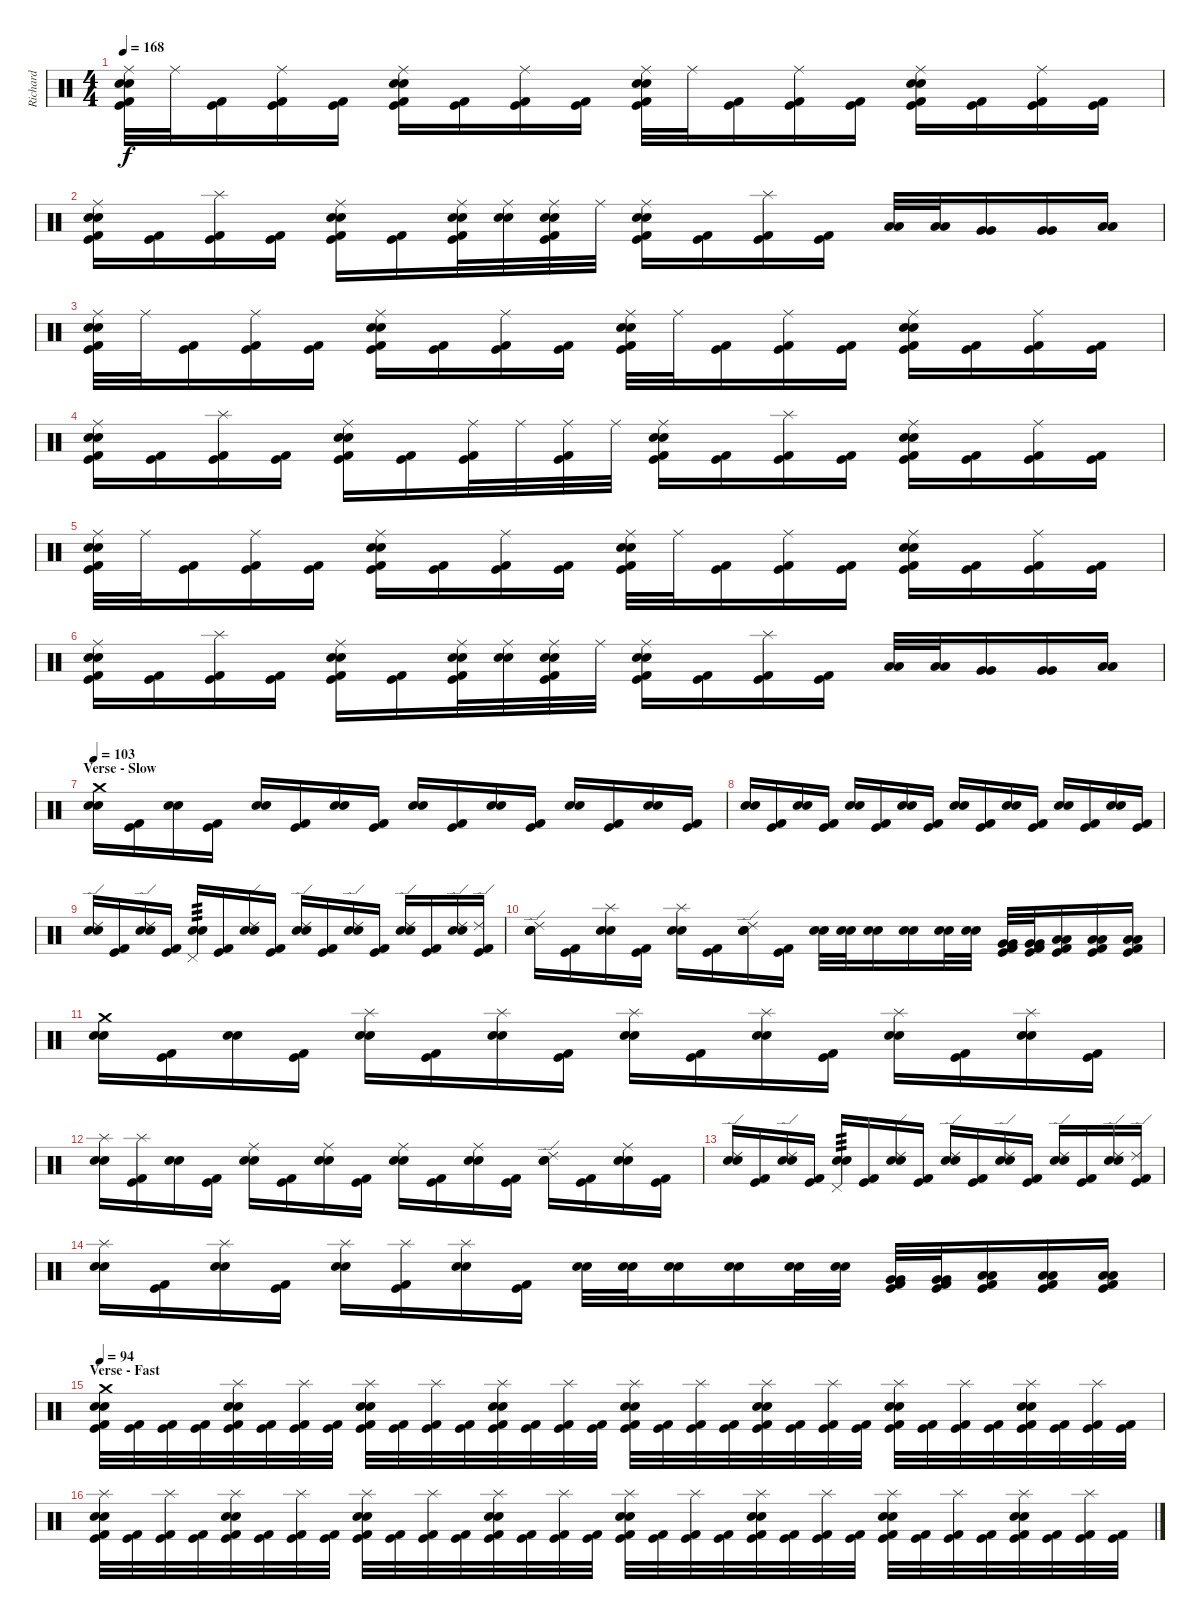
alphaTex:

\track ("Richard" "Richard") {instrument percussion}
\staff {score}
\articulation defaults
\ts (4 4)
\tempo 168
\clef neutral
\ks c
("Ride (middle)" "Snare (hit) 2" "Electric Snare (hit)" "Kick (hit)" "Kick (hit) 2").32{dy f} "Ride (middle)".32 ("Kick (hit)" "Kick (hit) 2").16 ("Ride (middle)" "Kick (hit)" "Kick (hit) 2").16 ("Kick (hit)" "Kick (hit) 2").16 ("Ride (middle)" "Snare (hit) 2" "Electric Snare (hit)" "Kick (hit)" "Kick (hit) 2").16 ("Kick (hit)" "Kick (hit) 2").16 ("Ride (middle)" "Kick (hit)" "Kick (hit) 2").16 ("Kick (hit)" "Kick (hit) 2").16 ("Ride (middle)" "Snare (hit) 2" "Electric Snare (hit)" "Kick (hit)" "Kick (hit) 2").32 "Ride (middle)".32 ("Kick (hit)" "Kick (hit) 2").16 ("Ride (middle)" "Kick (hit)" "Kick (hit) 2").16 ("Kick (hit)" "Kick (hit) 2").16 ("Ride (middle)" "Snare (hit) 2" "Electric Snare (hit)" "Kick (hit)" "Kick (hit) 2").16 ("Kick (hit)" "Kick (hit) 2").16 ("Ride (middle)" "Kick (hit)" "Kick (hit) 2").16 ("Kick (hit)" "Kick (hit) 2").16 |
("Ride (middle)" "Snare (hit) 2" "Electric Snare (hit)" "Kick (hit)" "Kick (hit) 2").16 ("Kick (hit)" "Kick (hit) 2").16 ("Splash (hit)" "Kick (hit)" "Kick (hit) 2").16 ("Kick (hit)" "Kick (hit) 2").16 ("Ride (middle)" "Snare (hit) 2" "Electric Snare (hit)" "Kick (hit)" "Kick (hit) 2").16 ("Kick (hit)" "Kick (hit) 2").16 ("Ride (middle)" "Snare (hit) 2" "Electric Snare (hit)" "Kick (hit)" "Kick (hit) 2").32 ("Ride (middle)" "Snare (hit) 2" "Electric Snare (hit)").32 ("Ride (middle)" "Snare (hit) 2" "Electric Snare (hit)" "Kick (hit)" "Kick (hit) 2").32 "Ride (middle)".32 ("Ride (middle)" "Snare (hit) 2" "Electric Snare (hit)" "Kick (hit)" "Kick (hit) 2").16 ("Kick (hit)" "Kick (hit) 2").16 ("Splash (hit)" "Kick (hit)" "Kick (hit) 2").16 ("Kick (hit)" "Kick (hit) 2").16 ("Low Tom (hit)" "Low Tom (hit)").32 ("Low Tom (hit)" "Low Tom (hit)").32 ("Very Low Tom (hit)" "Very Low Tom (hit)").16 ("Very Low Tom (hit)" "Very Low Tom (hit)").16 ("Low Floor Tom (hit)" "Low Floor Tom (hit)").16 |
("Ride (middle)" "Snare (hit) 2" "Electric Snare (hit)" "Kick (hit)" "Kick (hit) 2").32 "Ride (middle)".32 ("Kick (hit)" "Kick (hit) 2").16 ("Ride (middle)" "Kick (hit)" "Kick (hit) 2").16 ("Kick (hit)" "Kick (hit) 2").16 ("Ride (middle)" "Snare (hit) 2" "Electric Snare (hit)" "Kick (hit)" "Kick (hit) 2").16 ("Kick (hit)" "Kick (hit) 2").16 ("Ride (middle)" "Kick (hit)" "Kick (hit) 2").16 ("Kick (hit)" "Kick (hit) 2").16 ("Ride (middle)" "Snare (hit) 2" "Electric Snare (hit)" "Kick (hit)" "Kick (hit) 2").32 "Ride (middle)".32 ("Kick (hit)" "Kick (hit) 2").16 ("Ride (middle)" "Kick (hit)" "Kick (hit) 2").16 ("Kick (hit)" "Kick (hit) 2").16 ("Ride (middle)" "Snare (hit) 2" "Electric Snare (hit)" "Kick (hit)" "Kick (hit) 2").16 ("Kick (hit)" "Kick (hit) 2").16 ("Ride (middle)" "Kick (hit)" "Kick (hit) 2").16 ("Kick (hit)" "Kick (hit) 2").16 |
("Ride (middle)" "Snare (hit) 2" "Electric Snare (hit)" "Kick (hit)" "Kick (hit) 2").16 ("Kick (hit)" "Kick (hit) 2").16 ("Splash (hit)" "Kick (hit)" "Kick (hit) 2").16 ("Kick (hit)" "Kick (hit) 2").16 ("Ride (middle)" "Snare (hit) 2" "Electric Snare (hit)" "Kick (hit)" "Kick (hit) 2").16 ("Kick (hit)" "Kick (hit) 2").16 ("Ride (middle)" "Kick (hit)" "Kick (hit) 2").32 "Ride (middle)".32 ("Ride (middle)" "Kick (hit)" "Kick (hit) 2").32 "Ride (middle)".32 ("Ride (middle)" "Snare (hit) 2" "Electric Snare (hit)" "Kick (hit)" "Kick (hit) 2").16 ("Kick (hit)" "Kick (hit) 2").16 ("Splash (hit)" "Kick (hit)" "Kick (hit) 2").16 ("Kick (hit)" "Kick (hit) 2").16 ("Ride (middle)" "Snare (hit) 2" "Electric Snare (hit)" "Kick (hit)" "Kick (hit) 2").16 ("Kick (hit)" "Kick (hit) 2").16 ("Ride (middle)" "Kick (hit)" "Kick (hit) 2").16 ("Kick (hit)" "Kick (hit) 2").16 |
("Ride (middle)" "Snare (hit) 2" "Electric Snare (hit)" "Kick (hit)" "Kick (hit) 2").32 "Ride (middle)".32 ("Kick (hit)" "Kick (hit) 2").16 ("Ride (middle)" "Kick (hit)" "Kick (hit) 2").16 ("Kick (hit)" "Kick (hit) 2").16 ("Ride (middle)" "Snare (hit) 2" "Electric Snare (hit)" "Kick (hit)" "Kick (hit) 2").16 ("Kick (hit)" "Kick (hit) 2").16 ("Ride (middle)" "Kick (hit)" "Kick (hit) 2").16 ("Kick (hit)" "Kick (hit) 2").16 ("Ride (middle)" "Snare (hit) 2" "Electric Snare (hit)" "Kick (hit)" "Kick (hit) 2").32 "Ride (middle)".32 ("Kick (hit)" "Kick (hit) 2").16 ("Ride (middle)" "Kick (hit)" "Kick (hit) 2").16 ("Kick (hit)" "Kick (hit) 2").16 ("Ride (middle)" "Snare (hit) 2" "Electric Snare (hit)" "Kick (hit)" "Kick (hit) 2").16 ("Kick (hit)" "Kick (hit) 2").16 ("Ride (middle)" "Kick (hit)" "Kick (hit) 2").16 ("Kick (hit)" "Kick (hit) 2").16 |
("Ride (middle)" "Snare (hit) 2" "Electric Snare (hit)" "Kick (hit)" "Kick (hit) 2").16 ("Kick (hit)" "Kick (hit) 2").16 ("Splash (hit)" "Kick (hit)" "Kick (hit) 2").16 ("Kick (hit)" "Kick (hit) 2").16 ("Ride (middle)" "Snare (hit) 2" "Electric Snare (hit)" "Kick (hit)" "Kick (hit) 2").16 ("Kick (hit)" "Kick (hit) 2").16 ("Ride (middle)" "Snare (hit) 2" "Electric Snare (hit)" "Kick (hit)" "Kick (hit) 2").32 ("Ride (middle)" "Snare (hit) 2" "Electric Snare (hit)").32 ("Ride (middle)" "Snare (hit) 2" "Electric Snare (hit)" "Kick (hit)" "Kick (hit) 2").32 "Ride (middle)".32 ("Ride (middle)" "Snare (hit) 2" "Electric Snare (hit)" "Kick (hit)" "Kick (hit) 2").16 ("Kick (hit)" "Kick (hit) 2").16 ("Splash (hit)" "Kick (hit)" "Kick (hit) 2").16 ("Kick (hit)" "Kick (hit) 2").16 ("Low Tom (hit)" "Low Tom (hit)").32 ("Low Tom (hit)" "Low Tom (hit)").32 ("Very Low Tom (hit)" "Very Low Tom (hit)").16 ("Very Low Tom (hit)" "Very Low Tom (hit)").16 ("Low Floor Tom (hit)" "Low Floor Tom (hit)").16 |
\section ("" "Verse - Slow")
\tempo 103
("Crash medium (hit)" "Snare (hit) 2" "Electric Snare (hit)").16 ("Kick (hit)" "Kick (hit) 2").16 ("Snare (hit) 2" "Electric Snare (hit)").16 ("Kick (hit)" "Kick (hit) 2").16 ("Snare (hit) 2" "Electric Snare (hit)").16 ("Kick (hit)" "Kick (hit) 2").16 ("Snare (hit) 2" "Electric Snare (hit)").16 ("Kick (hit)" "Kick (hit) 2").16 ("Snare (hit) 2" "Electric Snare (hit)").16 ("Kick (hit)" "Kick (hit) 2").16 ("Snare (hit) 2" "Electric Snare (hit)").16 ("Kick (hit)" "Kick (hit) 2").16 ("Snare (hit) 2" "Electric Snare (hit)").16 ("Kick (hit)" "Kick (hit) 2").16 ("Snare (hit) 2" "Electric Snare (hit)").16 ("Kick (hit)" "Kick (hit) 2").16 |
("Snare (hit) 2" "Electric Snare (hit)").16 ("Kick (hit)" "Kick (hit) 2").16 ("Snare (hit) 2" "Electric Snare (hit)").16 ("Kick (hit)" "Kick (hit) 2").16 ("Snare (hit) 2" "Electric Snare (hit)").16 ("Kick (hit)" "Kick (hit) 2").16 ("Snare (hit) 2" "Electric Snare (hit)").16 ("Kick (hit)" "Kick (hit) 2").16 ("Snare (hit) 2" "Electric Snare (hit)").16 ("Kick (hit)" "Kick (hit) 2").16 ("Snare (hit) 2" "Electric Snare (hit)").16 ("Kick (hit)" "Kick (hit) 2").16 ("Snare (hit) 2" "Electric Snare (hit)").16 ("Kick (hit)" "Kick (hit) 2").16 ("Snare (hit) 2" "Electric Snare (hit)").16 ("Kick (hit)" "Kick (hit) 2").16 |
("Ride (edge) 2" "Snare (hit) 2" "Electric Snare (hit)").16 ("Kick (hit)" "Kick (hit) 2").16 ("Ride (edge) 2" "Snare (hit) 2" "Electric Snare (hit)").16 ("Kick (hit)" "Kick (hit) 2").16 ("Pedal Hi-Hat (hit)" "Snare (hit) 2" "Electric Snare (hit)").16{tp 3} ("Kick (hit)" "Kick (hit) 2").16 ("Ride (edge) 2" "Snare (hit) 2" "Electric Snare (hit)").16 ("Kick (hit)" "Kick (hit) 2").16 ("Ride (edge) 2" "Snare (hit) 2" "Electric Snare (hit)").16 ("Kick (hit)" "Kick (hit) 2").16 ("Ride (edge) 2" "Snare (hit) 2" "Electric Snare (hit)").16 ("Kick (hit)" "Kick (hit) 2").16 ("Ride (edge) 2" "Snare (hit) 2" "Electric Snare (hit)").16 ("Kick (hit)" "Kick (hit) 2").16 ("Ride (edge) 2" "Snare (hit) 2" "Electric Snare (hit)").16 ("Ride (edge) 2" "Kick (hit)" "Kick (hit) 2").16 |
("Ride (edge) 2" "Snare (hit) 2" "Electric Snare (hit)").16 ("Kick (hit)" "Kick (hit) 2").16 ("Splash (hit)" "Snare (hit) 2" "Electric Snare (hit)").16 ("Kick (hit)" "Kick (hit) 2").16 ("Splash (hit)" "Snare (hit) 2" "Electric Snare (hit)").16 ("Kick (hit)" "Kick (hit) 2").16 ("Ride (edge) 2" "Snare (hit) 2" "Electric Snare (hit)").16 ("Kick (hit)" "Kick (hit) 2").16 ("Snare (hit) 2" "Electric Snare (hit)").32 ("Snare (hit) 2" "Electric Snare (hit)").32 ("Snare (hit) 2" "Electric Snare (hit)").16 ("Snare (hit) 2" "Electric Snare (hit)").16 ("Snare (hit) 2" "Electric Snare (hit)").32 ("Snare (hit) 2" "Electric Snare (hit)").32 ("Very Low Tom (hit)" "Very Low Tom (hit)" "Kick (hit)" "Kick (hit) 2").32 ("Very Low Tom (hit)" "Very Low Tom (hit)" "Kick (hit)" "Kick (hit) 2").32 ("Low Floor Tom (hit)" "Low Floor Tom (hit)" "Kick (hit)" "Kick (hit) 2").16 ("Low Floor Tom (hit)" "Low Floor Tom (hit)" "Kick (hit)" "Kick (hit) 2").16 ("Low Floor Tom (hit)" "Low Floor Tom (hit)" "Kick (hit)" "Kick (hit) 2").16 |
("Crash medium (hit)" "Snare (hit) 2" "Electric Snare (hit)").16 ("Kick (hit)" "Kick (hit) 2").16 ("Snare (hit) 2" "Electric Snare (hit)").16 ("Kick (hit)" "Kick (hit) 2").16 ("Splash (hit)" "Snare (hit) 2" "Electric Snare (hit)").16 ("Kick (hit)" "Kick (hit) 2").16 ("Splash (hit)" "Snare (hit) 2" "Electric Snare (hit)").16 ("Kick (hit)" "Kick (hit) 2").16 ("Splash (hit)" "Snare (hit) 2" "Electric Snare (hit)").16 ("Kick (hit)" "Kick (hit) 2").16 ("Splash (hit)" "Snare (hit) 2" "Electric Snare (hit)").16 ("Kick (hit)" "Kick (hit) 2").16 ("Splash (hit)" "Snare (hit) 2" "Electric Snare (hit)").16 ("Kick (hit)" "Kick (hit) 2").16 ("Splash (hit)" "Snare (hit) 2" "Electric Snare (hit)").16 ("Kick (hit)" "Kick (hit) 2").16 |
("Splash (hit)" "Snare (hit) 2" "Electric Snare (hit)").16 ("Splash (hit)" "Kick (hit)" "Kick (hit) 2").16 ("Snare (hit) 2" "Electric Snare (hit)").16 ("Kick (hit)" "Kick (hit) 2").16 ("Ride (middle)" "Snare (hit) 2" "Electric Snare (hit)").16 ("Kick (hit)" "Kick (hit) 2").16 ("Ride (middle)" "Snare (hit) 2" "Electric Snare (hit)").16 ("Kick (hit)" "Kick (hit) 2").16 ("Ride (middle)" "Snare (hit) 2" "Electric Snare (hit)").16 ("Kick (hit)" "Kick (hit) 2").16 ("Ride (middle)" "Snare (hit) 2" "Electric Snare (hit)").16 ("Kick (hit)" "Kick (hit) 2").16 ("Ride (edge) 2" "Snare (hit) 2" "Electric Snare (hit)").16 ("Kick (hit)" "Kick (hit) 2").16 ("Ride (middle)" "Snare (hit) 2" "Electric Snare (hit)").16 ("Kick (hit)" "Kick (hit) 2").16 |
("Ride (edge) 2" "Snare (hit) 2" "Electric Snare (hit)").16 ("Kick (hit)" "Kick (hit) 2").16 ("Ride (edge) 2" "Snare (hit) 2" "Electric Snare (hit)").16 ("Kick (hit)" "Kick (hit) 2").16 ("Pedal Hi-Hat (hit)" "Snare (hit) 2" "Electric Snare (hit)").16{tp 3} ("Kick (hit)" "Kick (hit) 2").16 ("Ride (edge) 2" "Snare (hit) 2" "Electric Snare (hit)").16 ("Kick (hit)" "Kick (hit) 2").16 ("Ride (edge) 2" "Snare (hit) 2" "Electric Snare (hit)").16 ("Kick (hit)" "Kick (hit) 2").16 ("Ride (edge) 2" "Snare (hit) 2" "Electric Snare (hit)").16 ("Kick (hit)" "Kick (hit) 2").16 ("Ride (edge) 2" "Snare (hit) 2" "Electric Snare (hit)").16 ("Kick (hit)" "Kick (hit) 2").16 ("Ride (edge) 2" "Snare (hit) 2" "Electric Snare (hit)").16 ("Ride (edge) 2" "Kick (hit)" "Kick (hit) 2").16 |
("Splash (hit)" "Snare (hit) 2" "Electric Snare (hit)").16 ("Kick (hit)" "Kick (hit) 2").16 ("Splash (hit)" "Snare (hit) 2" "Electric Snare (hit)").16 ("Kick (hit)" "Kick (hit) 2").16 ("Splash (hit)" "Snare (hit) 2" "Electric Snare (hit)").16 ("Splash (hit)" "Kick (hit)" "Kick (hit) 2").16 ("Splash (hit)" "Snare (hit) 2" "Electric Snare (hit)").16 ("Kick (hit)" "Kick (hit) 2").16 ("Snare (hit) 2" "Electric Snare (hit)").32 ("Snare (hit) 2" "Electric Snare (hit)").32 ("Snare (hit) 2" "Electric Snare (hit)").16 ("Snare (hit) 2" "Electric Snare (hit)").16 ("Snare (hit) 2" "Electric Snare (hit)").32 ("Snare (hit) 2" "Electric Snare (hit)").32 ("Very Low Tom (hit)" "Very Low Tom (hit)" "Kick (hit)" "Kick (hit) 2").32 ("Very Low Tom (hit)" "Very Low Tom (hit)" "Kick (hit)" "Kick (hit) 2").32 ("Low Floor Tom (hit)" "Low Floor Tom (hit)" "Kick (hit)" "Kick (hit) 2").16 ("Low Floor Tom (hit)" "Low Floor Tom (hit)" "Kick (hit)" "Kick (hit) 2").16 ("Low Floor Tom (hit)" "Low Floor Tom (hit)" "Kick (hit)" "Kick (hit) 2").16 |
\section ("" "Verse - Fast")
\tempo 94
("Crash medium (hit)" "Snare (hit) 2" "Electric Snare (hit)" "Kick (hit)" "Kick (hit) 2").32 ("Kick (hit)" "Kick (hit) 2").32 ("Kick (hit)" "Kick (hit) 2").32 ("Kick (hit)" "Kick (hit) 2").32 ("Splash (hit)" "Snare (hit) 2" "Electric Snare (hit)" "Kick (hit)" "Kick (hit) 2").32 ("Kick (hit)" "Kick (hit) 2").32 ("Splash (hit)" "Kick (hit)" "Kick (hit) 2").32 ("Kick (hit)" "Kick (hit) 2").32 ("Splash (hit)" "Snare (hit) 2" "Electric Snare (hit)" "Kick (hit)" "Kick (hit) 2").32 ("Kick (hit)" "Kick (hit) 2").32 ("Splash (hit)" "Kick (hit)" "Kick (hit) 2").32 ("Kick (hit)" "Kick (hit) 2").32 ("Splash (hit)" "Snare (hit) 2" "Electric Snare (hit)" "Kick (hit)" "Kick (hit) 2").32 ("Kick (hit)" "Kick (hit) 2").32 ("Splash (hit)" "Kick (hit)" "Kick (hit) 2").32 ("Kick (hit)" "Kick (hit) 2").32 ("Splash (hit)" "Snare (hit) 2" "Electric Snare (hit)" "Kick (hit)" "Kick (hit) 2").32 ("Kick (hit)" "Kick (hit) 2").32 ("Splash (hit)" "Kick (hit)" "Kick (hit) 2").32 ("Kick (hit)" "Kick (hit) 2").32 ("Splash (hit)" "Snare (hit) 2" "Electric Snare (hit)" "Kick (hit)" "Kick (hit) 2").32 ("Kick (hit)" "Kick (hit) 2").32 ("Splash (hit)" "Kick (hit)" "Kick (hit) 2").32 ("Kick (hit)" "Kick (hit) 2").32 ("Splash (hit)" "Snare (hit) 2" "Electric Snare (hit)" "Kick (hit)" "Kick (hit) 2").32 ("Kick (hit)" "Kick (hit) 2").32 ("Splash (hit)" "Kick (hit)" "Kick (hit) 2").32 ("Kick (hit)" "Kick (hit) 2").32 ("Splash (hit)" "Snare (hit) 2" "Electric Snare (hit)" "Kick (hit)" "Kick (hit) 2").32 ("Kick (hit)" "Kick (hit) 2").32 ("Splash (hit)" "Kick (hit)" "Kick (hit) 2").32 ("Kick (hit)" "Kick (hit) 2").32 |
("Splash (hit)" "Snare (hit) 2" "Electric Snare (hit)" "Kick (hit)" "Kick (hit) 2").32 ("Kick (hit)" "Kick (hit) 2").32 ("Splash (hit)" "Kick (hit)" "Kick (hit) 2").32 ("Kick (hit)" "Kick (hit) 2").32 ("Splash (hit)" "Snare (hit) 2" "Electric Snare (hit)" "Kick (hit)" "Kick (hit) 2").32 ("Kick (hit)" "Kick (hit) 2").32 ("Splash (hit)" "Kick (hit)" "Kick (hit) 2").32 ("Kick (hit)" "Kick (hit) 2").32 ("Splash (hit)" "Snare (hit) 2" "Electric Snare (hit)" "Kick (hit)" "Kick (hit) 2").32 ("Kick (hit)" "Kick (hit) 2").32 ("Splash (hit)" "Kick (hit)" "Kick (hit) 2").32 ("Kick (hit)" "Kick (hit) 2").32 ("Splash (hit)" "Snare (hit) 2" "Electric Snare (hit)" "Kick (hit)" "Kick (hit) 2").32 ("Kick (hit)" "Kick (hit) 2").32 ("Splash (hit)" "Kick (hit)" "Kick (hit) 2").32 ("Kick (hit)" "Kick (hit) 2").32 ("Splash (hit)" "Snare (hit) 2" "Electric Snare (hit)" "Kick (hit)" "Kick (hit) 2").32 ("Kick (hit)" "Kick (hit) 2").32 ("Splash (hit)" "Kick (hit)" "Kick (hit) 2").32 ("Kick (hit)" "Kick (hit) 2").32 ("Splash (hit)" "Snare (hit) 2" "Electric Snare (hit)" "Kick (hit)" "Kick (hit) 2").32 ("Kick (hit)" "Kick (hit) 2").32 ("Splash (hit)" "Kick (hit)" "Kick (hit) 2").32 ("Kick (hit)" "Kick (hit) 2").32 ("Splash (hit)" "Snare (hit) 2" "Electric Snare (hit)" "Kick (hit)" "Kick (hit) 2").32 ("Kick (hit)" "Kick (hit) 2").32 ("Splash (hit)" "Kick (hit)" "Kick (hit) 2").32 ("Kick (hit)" "Kick (hit) 2").32 ("Splash (hit)" "Snare (hit) 2" "Electric Snare (hit)" "Kick (hit)" "Kick (hit) 2").32 ("Kick (hit)" "Kick (hit) 2").32 ("Splash (hit)" "Kick (hit)" "Kick (hit) 2").32 ("Kick (hit)" "Kick (hit) 2").32
